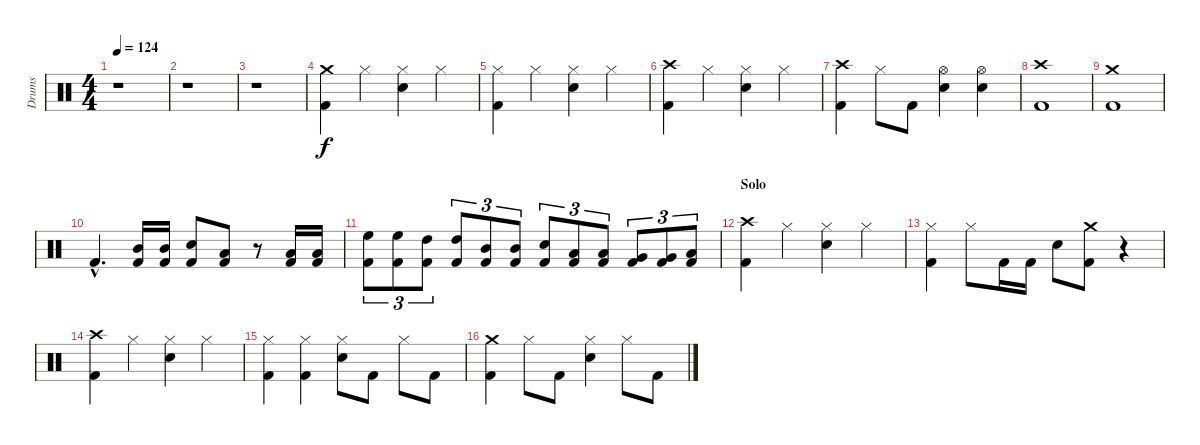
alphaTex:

\track ("Drums" "Drums") {instrument percussion}
\staff {score}
\articulation defaults
\ts (4 4)
\tempo 124
\clef neutral
\ks c
r.1{dy f} |
r.1 |
r.1 |
\section ("" "")
("Kick (hit) 2" "Crash medium (hit)").4 "Hi-Hat (closed)".4 ("Electric Snare (hit)" "Hi-Hat (closed)").4 "Hi-Hat (closed)".4 |
("Kick (hit) 2" "Hi-Hat (closed)").4 "Hi-Hat (closed)".4 ("Electric Snare (hit)" "Hi-Hat (closed)").4 "Hi-Hat (closed)".4 |
("Kick (hit) 2" "Crash high (hit)").4 "Hi-Hat (closed)".4 ("Electric Snare (hit)" "Hi-Hat (closed)").4 "Hi-Hat (closed)".4 |
("Kick (hit) 2" "Crash high (hit)").4 "Hi-Hat (closed)".8 "Kick (hit) 2".8 ("Electric Snare (hit)" "Hi-Hat (open)").4 ("Electric Snare (hit)" "Hi-Hat (open)").4 |
("Kick (hit) 2" "Crash high (hit)").1 |
("Kick (hit) 2" "Crash medium (hit)").1 |
"Kick (hit) 2"{hac}.4{d} ("Kick (hit) 2" "Mid Tom (hit)").16 ("Kick (hit) 2" "Mid Tom (hit)").16 ("Kick (hit) 2" "Electric Snare (hit)").8 ("Kick (hit) 2" "Low Tom (hit)").8 r.8 ("Kick (hit) 2" "Low Tom (hit)").16 ("Kick (hit) 2" "Low Tom (hit)").16 |
("Kick (hit) 2" "High Floor Tom (hit)").8{tu (3 2)} ("Kick (hit) 2" "High Floor Tom (hit)").8{tu (3 2)} ("Kick (hit) 2" "High Tom (hit)").8{tu (3 2)} ("Kick (hit) 2" "High Tom (hit)").8{tu (3 2)} ("Kick (hit) 2" "Mid Tom (hit)").8{tu (3 2)} ("Kick (hit) 2" "Mid Tom (hit)").8{tu (3 2)} ("Kick (hit) 2" "Electric Snare (hit)").8{tu (3 2)} ("Kick (hit) 2" "Low Tom (hit)").8{tu (3 2)} ("Kick (hit) 2" "Low Tom (hit)").8{tu (3 2)} ("Kick (hit) 2" "Very Low Tom (hit)").8{tu (3 2)} ("Kick (hit) 2" "Very Low Tom (hit)").8{tu (3 2)} ("Kick (hit) 2" "Low Floor Tom (hit)").8{tu (3 2)} |
\section ("" "Solo")
("Kick (hit) 2" "Crash high (hit)").4 "Hi-Hat (closed)".4 ("Electric Snare (hit)" "Hi-Hat (closed)").4 "Hi-Hat (closed)".4 |
("Kick (hit) 2" "Hi-Hat (closed)").4 "Hi-Hat (closed)".8 "Kick (hit) 2".16 "Kick (hit) 2".16 "Electric Snare (hit)".8 ("Kick (hit) 2" "Crash medium (hit)").8 r.4 |
("Kick (hit) 2" "Crash high (hit)").4 "Hi-Hat (closed)".4 ("Electric Snare (hit)" "Hi-Hat (closed)").4 "Hi-Hat (closed)".4 |
("Kick (hit) 2" "Hi-Hat (closed)").4 ("Kick (hit) 2" "Hi-Hat (closed)").4 ("Electric Snare (hit)" "Hi-Hat (closed)").8 "Kick (hit) 2".8 "Hi-Hat (closed)".8 "Kick (hit) 2".8 |
("Kick (hit) 2" "Crash medium (hit)").4 "Hi-Hat (closed)".8 "Kick (hit) 2".8 ("Electric Snare (hit)" "Hi-Hat (closed)").4 "Hi-Hat (closed)".8 "Kick (hit) 2".8
